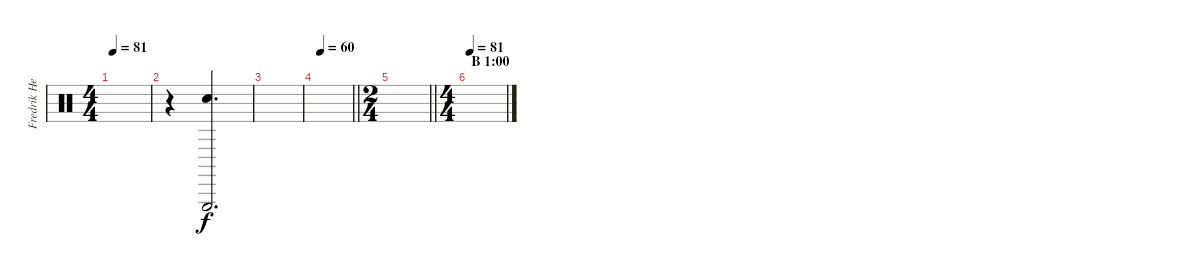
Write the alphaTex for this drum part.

\track ("Fredrik Hellerström (Drums)" "Fredrik He") {instrument percussion}
\staff {score}
\articulation defaults
\ts (4 4)
\tempo 81
\clef neutral
\ks c
|
r.4 ("Triangle (hit)" "Metronome (bell)").2{d} |
|
\tempo (60 0.125)
\barLineRight lightlight
|
\ts (2 4)
\barLineRight lightlight
|
\ts (4 4)
\section ("" "B 1:00")
\tempo 81
